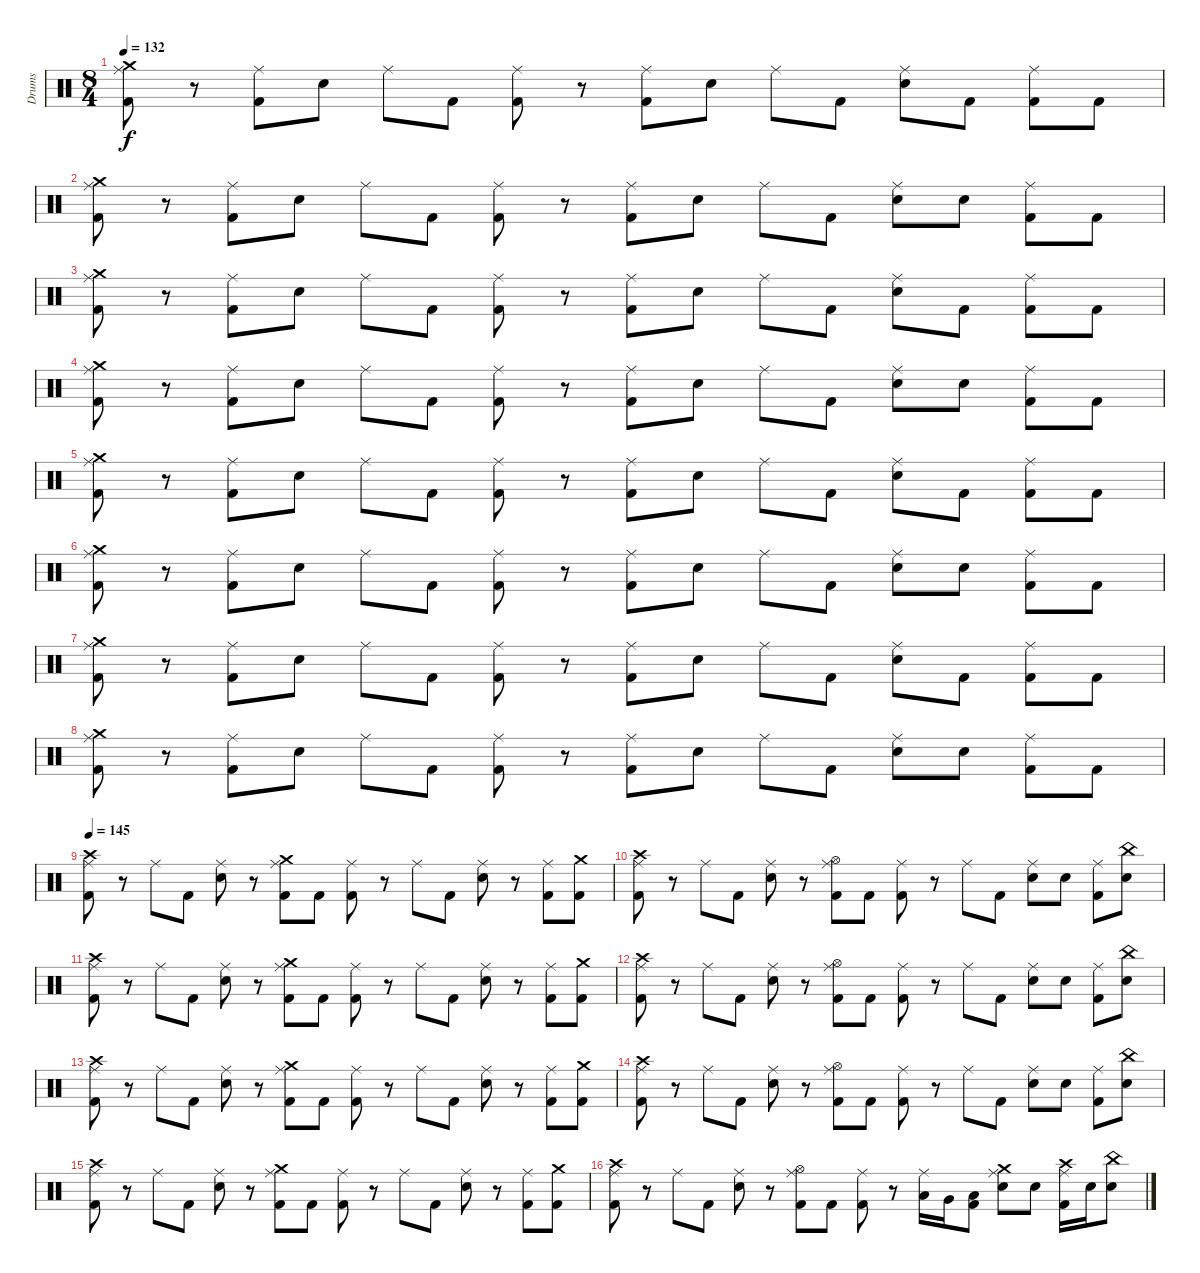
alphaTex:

\track ("Drums" "Drums") {instrument percussion}
\staff {score}
\articulation defaults
\ts (8 4)
\tempo 132
\clef neutral
\ks c
("Crash medium (hit)" "Ride (middle)" "Kick (hit) 2").8{dy f} r.8 ("Ride (middle)" "Kick (hit) 2").8 "Electric Snare (hit)".8 "Ride (middle)".8 "Kick (hit) 2".8 ("Ride (middle)" "Kick (hit) 2").8 r.8 ("Ride (middle)" "Kick (hit) 2").8 "Electric Snare (hit)".8 "Ride (middle)".8 "Kick (hit) 2".8 ("Ride (middle)" "Electric Snare (hit)").8 "Kick (hit) 2".8 ("Ride (middle)" "Kick (hit) 2").8 "Kick (hit) 2".8 |
("Crash medium (hit)" "Ride (middle)" "Kick (hit) 2").8 r.8 ("Ride (middle)" "Kick (hit) 2").8 "Electric Snare (hit)".8 "Ride (middle)".8 "Kick (hit) 2".8 ("Ride (middle)" "Kick (hit) 2").8 r.8 ("Ride (middle)" "Kick (hit) 2").8 "Electric Snare (hit)".8 "Ride (middle)".8 "Kick (hit) 2".8 ("Ride (middle)" "Electric Snare (hit)").8 "Electric Snare (hit)".8 ("Ride (middle)" "Kick (hit) 2").8 "Kick (hit) 2".8 |
("Crash medium (hit)" "Ride (middle)" "Kick (hit) 2").8 r.8 ("Ride (middle)" "Kick (hit) 2").8 "Electric Snare (hit)".8 "Ride (middle)".8 "Kick (hit) 2".8 ("Ride (middle)" "Kick (hit) 2").8 r.8 ("Ride (middle)" "Kick (hit) 2").8 "Electric Snare (hit)".8 "Ride (middle)".8 "Kick (hit) 2".8 ("Ride (middle)" "Electric Snare (hit)").8 "Kick (hit) 2".8 ("Ride (middle)" "Kick (hit) 2").8 "Kick (hit) 2".8 |
("Crash medium (hit)" "Ride (middle)" "Kick (hit) 2").8 r.8 ("Ride (middle)" "Kick (hit) 2").8 "Electric Snare (hit)".8 "Ride (middle)".8 "Kick (hit) 2".8 ("Ride (middle)" "Kick (hit) 2").8 r.8 ("Ride (middle)" "Kick (hit) 2").8 "Electric Snare (hit)".8 "Ride (middle)".8 "Kick (hit) 2".8 ("Ride (middle)" "Electric Snare (hit)").8 "Electric Snare (hit)".8 ("Ride (middle)" "Kick (hit) 2").8 "Kick (hit) 2".8 |
("Crash medium (hit)" "Ride (middle)" "Kick (hit) 2").8 r.8 ("Ride (middle)" "Kick (hit) 2").8 "Electric Snare (hit)".8 "Ride (middle)".8 "Kick (hit) 2".8 ("Ride (middle)" "Kick (hit) 2").8 r.8 ("Ride (middle)" "Kick (hit) 2").8 "Electric Snare (hit)".8 "Ride (middle)".8 "Kick (hit) 2".8 ("Ride (middle)" "Electric Snare (hit)").8 "Kick (hit) 2".8 ("Ride (middle)" "Kick (hit) 2").8 "Kick (hit) 2".8 |
("Crash medium (hit)" "Ride (middle)" "Kick (hit) 2").8 r.8 ("Ride (middle)" "Kick (hit) 2").8 "Electric Snare (hit)".8 "Ride (middle)".8 "Kick (hit) 2".8 ("Ride (middle)" "Kick (hit) 2").8 r.8 ("Ride (middle)" "Kick (hit) 2").8 "Electric Snare (hit)".8 "Ride (middle)".8 "Kick (hit) 2".8 ("Ride (middle)" "Electric Snare (hit)").8 "Electric Snare (hit)".8 ("Ride (middle)" "Kick (hit) 2").8 "Kick (hit) 2".8 |
("Crash medium (hit)" "Ride (middle)" "Kick (hit) 2").8 r.8 ("Ride (middle)" "Kick (hit) 2").8 "Electric Snare (hit)".8 "Ride (middle)".8 "Kick (hit) 2".8 ("Ride (middle)" "Kick (hit) 2").8 r.8 ("Ride (middle)" "Kick (hit) 2").8 "Electric Snare (hit)".8 "Ride (middle)".8 "Kick (hit) 2".8 ("Ride (middle)" "Electric Snare (hit)").8 "Kick (hit) 2".8 ("Ride (middle)" "Kick (hit) 2").8 "Kick (hit) 2".8 |
("Crash medium (hit)" "Ride (middle)" "Kick (hit) 2").8 r.8 ("Ride (middle)" "Kick (hit) 2").8 "Electric Snare (hit)".8 "Ride (middle)".8 "Kick (hit) 2".8 ("Ride (middle)" "Kick (hit) 2").8 r.8 ("Ride (middle)" "Kick (hit) 2").8 "Electric Snare (hit)".8 "Ride (middle)".8 "Kick (hit) 2".8 ("Ride (middle)" "Electric Snare (hit)").8 "Electric Snare (hit)".8 ("Ride (middle)" "Kick (hit) 2").8 "Kick (hit) 2".8 |
\tempo 145
("Crash high (hit)" "Ride (middle)" "Kick (hit) 2").8 r.8 "Ride (middle)".8 "Kick (hit) 2".8 ("Ride (middle)" "Electric Snare (hit)").8 r.8 ("Crash medium (hit)" "Ride (middle)" "Kick (hit) 2").8 "Kick (hit) 2".8 ("Ride (middle)" "Kick (hit) 2").8 r.8 "Ride (middle)".8 "Kick (hit) 2".8 ("Ride (middle)" "Electric Snare (hit)").8 r.8 ("Ride (middle)" "Kick (hit) 2").8 ("Crash medium (hit)" "Kick (hit) 2").8 |
("Crash high (hit)" "Ride (middle)" "Kick (hit) 2").8 r.8 "Ride (middle)".8 "Kick (hit) 2".8 ("Ride (middle)" "Electric Snare (hit)").8 r.8 ("Hi-Hat (open)" "Ride (middle)" "Kick (hit) 2").8 "Kick (hit) 2".8 ("Ride (middle)" "Kick (hit) 2").8 r.8 "Ride (middle)".8 "Kick (hit) 2".8 ("Ride (middle)" "Electric Snare (hit)").8 "Electric Snare (hit)".8 ("Ride (middle)" "Kick (hit) 2").8 ("China (hit)" "Electric Snare (hit)").8 |
("Crash high (hit)" "Ride (middle)" "Kick (hit) 2").8 r.8 "Ride (middle)".8 "Kick (hit) 2".8 ("Ride (middle)" "Electric Snare (hit)").8 r.8 ("Crash medium (hit)" "Ride (middle)" "Kick (hit) 2").8 "Kick (hit) 2".8 ("Ride (middle)" "Kick (hit) 2").8 r.8 "Ride (middle)".8 "Kick (hit) 2".8 ("Ride (middle)" "Electric Snare (hit)").8 r.8 ("Ride (middle)" "Kick (hit) 2").8 ("Crash medium (hit)" "Kick (hit) 2").8 |
("Crash high (hit)" "Ride (middle)" "Kick (hit) 2").8 r.8 "Ride (middle)".8 "Kick (hit) 2".8 ("Ride (middle)" "Electric Snare (hit)").8 r.8 ("Hi-Hat (open)" "Ride (middle)" "Kick (hit) 2").8 "Kick (hit) 2".8 ("Ride (middle)" "Kick (hit) 2").8 r.8 "Ride (middle)".8 "Kick (hit) 2".8 ("Ride (middle)" "Electric Snare (hit)").8 "Electric Snare (hit)".8 ("Ride (middle)" "Kick (hit) 2").8 ("China (hit)" "Electric Snare (hit)").8 |
("Crash high (hit)" "Ride (middle)" "Kick (hit) 2").8 r.8 "Ride (middle)".8 "Kick (hit) 2".8 ("Ride (middle)" "Electric Snare (hit)").8 r.8 ("Crash medium (hit)" "Ride (middle)" "Kick (hit) 2").8 "Kick (hit) 2".8 ("Ride (middle)" "Kick (hit) 2").8 r.8 "Ride (middle)".8 "Kick (hit) 2".8 ("Ride (middle)" "Electric Snare (hit)").8 r.8 ("Ride (middle)" "Kick (hit) 2").8 ("Crash medium (hit)" "Kick (hit) 2").8 |
("Crash high (hit)" "Ride (middle)" "Kick (hit) 2").8 r.8 "Ride (middle)".8 "Kick (hit) 2".8 ("Ride (middle)" "Electric Snare (hit)").8 r.8 ("Hi-Hat (open)" "Ride (middle)" "Kick (hit) 2").8 "Kick (hit) 2".8 ("Ride (middle)" "Kick (hit) 2").8 r.8 "Ride (middle)".8 "Kick (hit) 2".8 ("Ride (middle)" "Electric Snare (hit)").8 "Electric Snare (hit)".8 ("Ride (middle)" "Kick (hit) 2").8 ("China (hit)" "Electric Snare (hit)").8 |
("Crash high (hit)" "Ride (middle)" "Kick (hit) 2").8 r.8 "Ride (middle)".8 "Kick (hit) 2".8 ("Ride (middle)" "Electric Snare (hit)").8 r.8 ("Crash medium (hit)" "Ride (middle)" "Kick (hit) 2").8 "Kick (hit) 2".8 ("Ride (middle)" "Kick (hit) 2").8 r.8 "Ride (middle)".8 "Kick (hit) 2".8 ("Ride (middle)" "Electric Snare (hit)").8 r.8 ("Ride (middle)" "Kick (hit) 2").8 ("Crash medium (hit)" "Kick (hit) 2").8 |
("Crash high (hit)" "Ride (middle)" "Kick (hit) 2").8 r.8 "Ride (middle)".8 "Kick (hit) 2".8 ("Ride (middle)" "Electric Snare (hit)").8 r.8 ("Hi-Hat (open)" "Ride (middle)" "Kick (hit) 2").8 "Kick (hit) 2".8 ("Ride (middle)" "Kick (hit) 2").8 r.8 ("Ride (middle)" "Low Floor Tom (hit)").16 "Very Low Tom (hit)".16 ("Low Tom (hit)" "Kick (hit) 2").8 ("Crash medium (hit)" "Ride (middle)" "Electric Snare (hit)").8 "Electric Snare (hit)".8 ("Crash high (hit)" "Ride (middle)" "Kick (hit) 2").16 "Electric Snare (hit)".16 ("China (hit)" "Electric Snare (hit)").8
